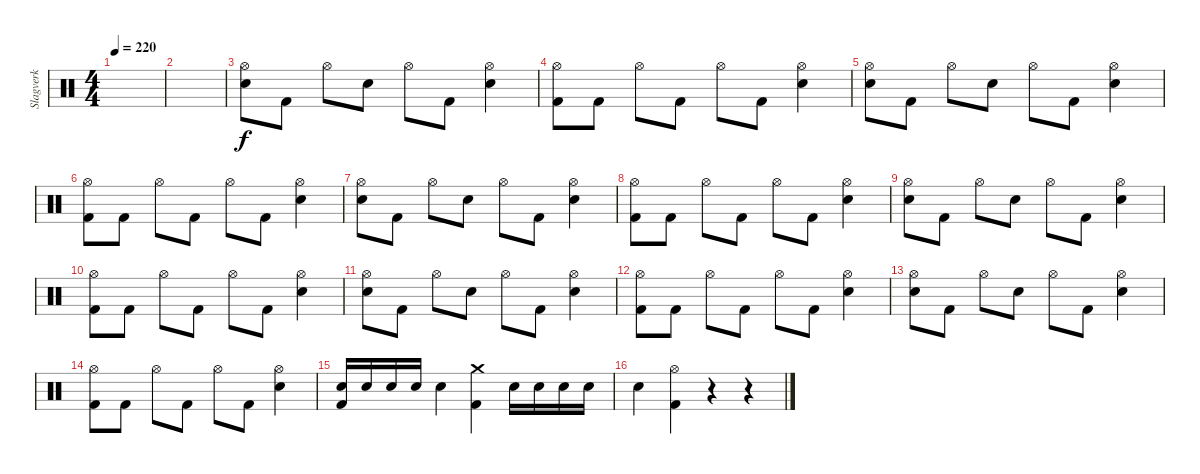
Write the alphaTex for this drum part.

\track ("Slagverk" "Slagverk") {instrument percussion}
\staff {score}
\articulation defaults
\ts (4 4)
\tempo 220
\clef neutral
\ks c
|
|
("Hi-Hat (open)" "Electric Snare (hit)").8 "Kick (hit) 2".8 "Hi-Hat (open)".8 "Electric Snare (hit)".8 "Hi-Hat (open)".8 "Kick (hit) 2".8 ("Hi-Hat (open)" "Electric Snare (hit)").4 |
("Hi-Hat (open)" "Kick (hit) 2").8 "Kick (hit) 2".8 "Hi-Hat (open)".8 "Kick (hit) 2".8 "Hi-Hat (open)".8 "Kick (hit) 2".8 ("Hi-Hat (open)" "Electric Snare (hit)").4 |
("Hi-Hat (open)" "Electric Snare (hit)").8 "Kick (hit) 2".8 "Hi-Hat (open)".8 "Electric Snare (hit)".8 "Hi-Hat (open)".8 "Kick (hit) 2".8 ("Hi-Hat (open)" "Electric Snare (hit)").4 |
("Hi-Hat (open)" "Kick (hit) 2").8 "Kick (hit) 2".8 "Hi-Hat (open)".8 "Kick (hit) 2".8 "Hi-Hat (open)".8 "Kick (hit) 2".8 ("Hi-Hat (open)" "Electric Snare (hit)").4 |
("Hi-Hat (open)" "Electric Snare (hit)").8 "Kick (hit) 2".8 "Hi-Hat (open)".8 "Electric Snare (hit)".8 "Hi-Hat (open)".8 "Kick (hit) 2".8 ("Hi-Hat (open)" "Electric Snare (hit)").4 |
("Hi-Hat (open)" "Kick (hit) 2").8 "Kick (hit) 2".8 "Hi-Hat (open)".8 "Kick (hit) 2".8 "Hi-Hat (open)".8 "Kick (hit) 2".8 ("Hi-Hat (open)" "Electric Snare (hit)").4 |
("Hi-Hat (open)" "Electric Snare (hit)").8 "Kick (hit) 2".8 "Hi-Hat (open)".8 "Electric Snare (hit)".8 "Hi-Hat (open)".8 "Kick (hit) 2".8 ("Hi-Hat (open)" "Electric Snare (hit)").4 |
("Hi-Hat (open)" "Kick (hit) 2").8 "Kick (hit) 2".8 "Hi-Hat (open)".8 "Kick (hit) 2".8 "Hi-Hat (open)".8 "Kick (hit) 2".8 ("Hi-Hat (open)" "Electric Snare (hit)").4 |
("Hi-Hat (open)" "Electric Snare (hit)").8 "Kick (hit) 2".8 "Hi-Hat (open)".8 "Electric Snare (hit)".8 "Hi-Hat (open)".8 "Kick (hit) 2".8 ("Hi-Hat (open)" "Electric Snare (hit)").4 |
("Hi-Hat (open)" "Kick (hit) 2").8 "Kick (hit) 2".8 "Hi-Hat (open)".8 "Kick (hit) 2".8 "Hi-Hat (open)".8 "Kick (hit) 2".8 ("Hi-Hat (open)" "Electric Snare (hit)").4 |
("Hi-Hat (open)" "Electric Snare (hit)").8 "Kick (hit) 2".8 "Hi-Hat (open)".8 "Electric Snare (hit)".8 "Hi-Hat (open)".8 "Kick (hit) 2".8 ("Hi-Hat (open)" "Electric Snare (hit)").4 |
("Hi-Hat (open)" "Kick (hit) 2").8 "Kick (hit) 2".8 "Hi-Hat (open)".8 "Kick (hit) 2".8 "Hi-Hat (open)".8 "Kick (hit) 2".8 ("Hi-Hat (open)" "Electric Snare (hit)").4 |
("Electric Snare (hit)" "Kick (hit) 2").16 "Electric Snare (hit)".16 "Electric Snare (hit)".16 "Electric Snare (hit)".16 "Electric Snare (hit)".4 ("Kick (hit) 2" "Crash medium (hit)").4 "Electric Snare (hit)".16 "Electric Snare (hit)".16 "Electric Snare (hit)".16 "Electric Snare (hit)".16 |
"Electric Snare (hit)".4 ("Hi-Hat (open)" "Kick (hit) 2").4 r.4 r.4
